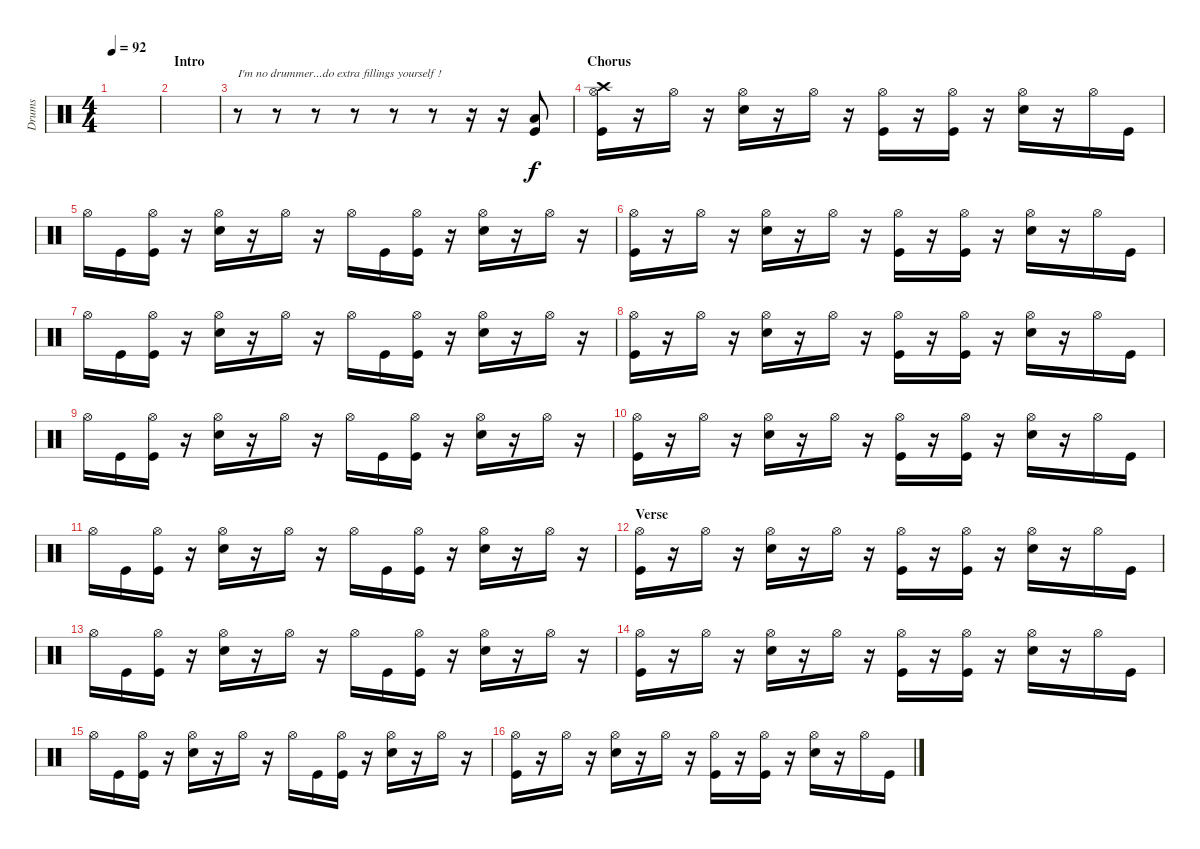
\track ("Drums" "Drums") {instrument percussion}
\staff {score}
\articulation defaults
\ts (4 4)
\tempo 92
\clef neutral
\ks c
|
\section ("" "Intro")
|
r.8{txt "I'm no drummer...do extra fillings yourself !"} r.8 r.8 r.8 r.8 r.8 r.16 r.16 ("Low Floor Tom (hit)" "Kick (hit)").8 |
\section ("" "Chorus")
("Hi-Hat (open)" "Crash high (hit)" "Kick (hit)").16 r.16 "Hi-Hat (open)".16 r.16 ("Hi-Hat (open)" "Snare (hit) 2").16 r.16 "Hi-Hat (open)".16 r.16 ("Hi-Hat (open)" "Kick (hit)").16 r.16 ("Hi-Hat (open)" "Kick (hit)").16 r.16 ("Hi-Hat (open)" "Snare (hit) 2").16 r.16 "Hi-Hat (open)".16 "Kick (hit)".16 |
"Hi-Hat (open)".16 "Kick (hit)".16 ("Hi-Hat (open)" "Kick (hit)").16 r.16 ("Hi-Hat (open)" "Snare (hit) 2").16 r.16 "Hi-Hat (open)".16 r.16 "Hi-Hat (open)".16 "Kick (hit)".16 ("Hi-Hat (open)" "Kick (hit)").16 r.16 ("Hi-Hat (open)" "Snare (hit) 2").16 r.16 "Hi-Hat (open)".16 r.16 |
("Hi-Hat (open)" "Kick (hit)").16 r.16 "Hi-Hat (open)".16 r.16 ("Hi-Hat (open)" "Snare (hit) 2").16 r.16 "Hi-Hat (open)".16 r.16 ("Hi-Hat (open)" "Kick (hit)").16 r.16 ("Hi-Hat (open)" "Kick (hit)").16 r.16 ("Hi-Hat (open)" "Snare (hit) 2").16 r.16 "Hi-Hat (open)".16 "Kick (hit)".16 |
"Hi-Hat (open)".16 "Kick (hit)".16 ("Hi-Hat (open)" "Kick (hit)").16 r.16 ("Hi-Hat (open)" "Snare (hit) 2").16 r.16 "Hi-Hat (open)".16 r.16 "Hi-Hat (open)".16 "Kick (hit)".16 ("Hi-Hat (open)" "Kick (hit)").16 r.16 ("Hi-Hat (open)" "Snare (hit) 2").16 r.16 "Hi-Hat (open)".16 r.16 |
("Hi-Hat (open)" "Kick (hit)").16 r.16 "Hi-Hat (open)".16 r.16 ("Hi-Hat (open)" "Snare (hit) 2").16 r.16 "Hi-Hat (open)".16 r.16 ("Hi-Hat (open)" "Kick (hit)").16 r.16 ("Hi-Hat (open)" "Kick (hit)").16 r.16 ("Hi-Hat (open)" "Snare (hit) 2").16 r.16 "Hi-Hat (open)".16 "Kick (hit)".16 |
"Hi-Hat (open)".16 "Kick (hit)".16 ("Hi-Hat (open)" "Kick (hit)").16 r.16 ("Hi-Hat (open)" "Snare (hit) 2").16 r.16 "Hi-Hat (open)".16 r.16 "Hi-Hat (open)".16 "Kick (hit)".16 ("Hi-Hat (open)" "Kick (hit)").16 r.16 ("Hi-Hat (open)" "Snare (hit) 2").16 r.16 "Hi-Hat (open)".16 r.16 |
("Hi-Hat (open)" "Kick (hit)").16 r.16 "Hi-Hat (open)".16 r.16 ("Hi-Hat (open)" "Snare (hit) 2").16 r.16 "Hi-Hat (open)".16 r.16 ("Hi-Hat (open)" "Kick (hit)").16 r.16 ("Hi-Hat (open)" "Kick (hit)").16 r.16 ("Hi-Hat (open)" "Snare (hit) 2").16 r.16 "Hi-Hat (open)".16 "Kick (hit)".16 |
"Hi-Hat (open)".16 "Kick (hit)".16 ("Hi-Hat (open)" "Kick (hit)").16 r.16 ("Hi-Hat (open)" "Snare (hit) 2").16 r.16 "Hi-Hat (open)".16 r.16 "Hi-Hat (open)".16 "Kick (hit)".16 ("Hi-Hat (open)" "Kick (hit)").16 r.16 ("Hi-Hat (open)" "Snare (hit) 2").16 r.16 "Hi-Hat (open)".16 r.16 |
\section ("" "Verse")
("Hi-Hat (open)" "Kick (hit)").16 r.16 "Hi-Hat (open)".16 r.16 ("Hi-Hat (open)" "Snare (hit) 2").16 r.16 "Hi-Hat (open)".16 r.16 ("Hi-Hat (open)" "Kick (hit)").16 r.16 ("Hi-Hat (open)" "Kick (hit)").16 r.16 ("Hi-Hat (open)" "Snare (hit) 2").16 r.16 "Hi-Hat (open)".16 "Kick (hit)".16 |
"Hi-Hat (open)".16 "Kick (hit)".16 ("Hi-Hat (open)" "Kick (hit)").16 r.16 ("Hi-Hat (open)" "Snare (hit) 2").16 r.16 "Hi-Hat (open)".16 r.16 "Hi-Hat (open)".16 "Kick (hit)".16 ("Hi-Hat (open)" "Kick (hit)").16 r.16 ("Hi-Hat (open)" "Snare (hit) 2").16 r.16 "Hi-Hat (open)".16 r.16 |
("Hi-Hat (open)" "Kick (hit)").16 r.16 "Hi-Hat (open)".16 r.16 ("Hi-Hat (open)" "Snare (hit) 2").16 r.16 "Hi-Hat (open)".16 r.16 ("Hi-Hat (open)" "Kick (hit)").16 r.16 ("Hi-Hat (open)" "Kick (hit)").16 r.16 ("Hi-Hat (open)" "Snare (hit) 2").16 r.16 "Hi-Hat (open)".16 "Kick (hit)".16 |
"Hi-Hat (open)".16 "Kick (hit)".16 ("Hi-Hat (open)" "Kick (hit)").16 r.16 ("Hi-Hat (open)" "Snare (hit) 2").16 r.16 "Hi-Hat (open)".16 r.16 "Hi-Hat (open)".16 "Kick (hit)".16 ("Hi-Hat (open)" "Kick (hit)").16 r.16 ("Hi-Hat (open)" "Snare (hit) 2").16 r.16 "Hi-Hat (open)".16 r.16 |
("Hi-Hat (open)" "Kick (hit)").16 r.16 "Hi-Hat (open)".16 r.16 ("Hi-Hat (open)" "Snare (hit) 2").16 r.16 "Hi-Hat (open)".16 r.16 ("Hi-Hat (open)" "Kick (hit)").16 r.16 ("Hi-Hat (open)" "Kick (hit)").16 r.16 ("Hi-Hat (open)" "Snare (hit) 2").16 r.16 "Hi-Hat (open)".16 "Kick (hit)".16
